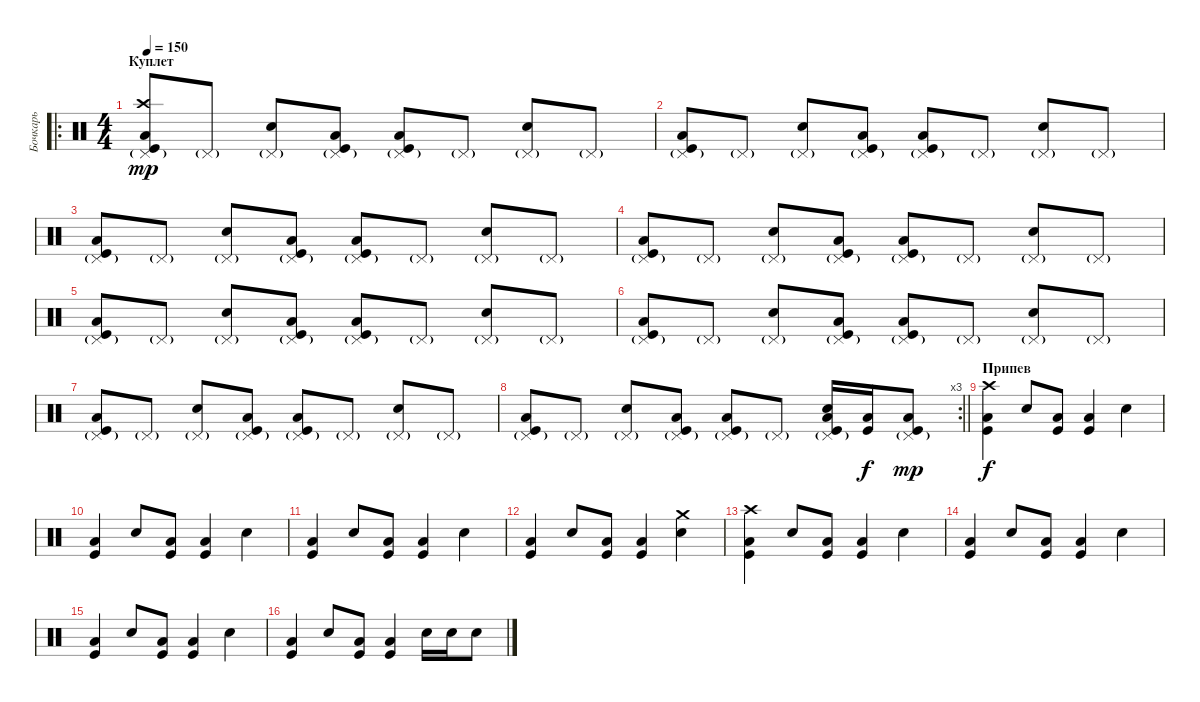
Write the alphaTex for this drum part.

\track ("Бочкарь" "Бочкарь") {instrument percussion}
\staff {score}
\articulation defaults
\ro
\ts (4 4)
\section ("" "Куплет")
\tempo 150
\clef neutral
\ks c
("Pedal Hi-Hat (hit)"{g} "Crash high (hit)" "Low Tom (hit)" "Kick (hit)").8{dy mp} "Pedal Hi-Hat (hit)"{g}.8 ("Pedal Hi-Hat (hit)"{g} "Electric Snare (hit)").8 ("Pedal Hi-Hat (hit)"{g} "Low Tom (hit)" "Kick (hit)").8 ("Pedal Hi-Hat (hit)"{g} "Low Tom (hit)" "Kick (hit)").8 "Pedal Hi-Hat (hit)"{g}.8 ("Pedal Hi-Hat (hit)"{g} "Electric Snare (hit)").8 "Pedal Hi-Hat (hit)"{g}.8 |
("Pedal Hi-Hat (hit)"{g} "Low Tom (hit)" "Kick (hit)").8 "Pedal Hi-Hat (hit)"{g}.8 ("Pedal Hi-Hat (hit)"{g} "Electric Snare (hit)").8 ("Pedal Hi-Hat (hit)"{g} "Low Tom (hit)" "Kick (hit)").8 ("Pedal Hi-Hat (hit)"{g} "Low Tom (hit)" "Kick (hit)").8 "Pedal Hi-Hat (hit)"{g}.8 ("Pedal Hi-Hat (hit)"{g} "Electric Snare (hit)").8 "Pedal Hi-Hat (hit)"{g}.8 |
("Pedal Hi-Hat (hit)"{g} "Low Tom (hit)" "Kick (hit)").8 "Pedal Hi-Hat (hit)"{g}.8 ("Pedal Hi-Hat (hit)"{g} "Electric Snare (hit)").8 ("Pedal Hi-Hat (hit)"{g} "Low Tom (hit)" "Kick (hit)").8 ("Pedal Hi-Hat (hit)"{g} "Low Tom (hit)" "Kick (hit)").8 "Pedal Hi-Hat (hit)"{g}.8 ("Pedal Hi-Hat (hit)"{g} "Electric Snare (hit)").8 "Pedal Hi-Hat (hit)"{g}.8 |
("Pedal Hi-Hat (hit)"{g} "Low Tom (hit)" "Kick (hit)").8 "Pedal Hi-Hat (hit)"{g}.8 ("Pedal Hi-Hat (hit)"{g} "Electric Snare (hit)").8 ("Pedal Hi-Hat (hit)"{g} "Low Tom (hit)" "Kick (hit)").8 ("Pedal Hi-Hat (hit)"{g} "Low Tom (hit)" "Kick (hit)").8 "Pedal Hi-Hat (hit)"{g}.8 ("Pedal Hi-Hat (hit)"{g} "Electric Snare (hit)").8 "Pedal Hi-Hat (hit)"{g}.8 |
("Pedal Hi-Hat (hit)"{g} "Low Tom (hit)" "Kick (hit)").8 "Pedal Hi-Hat (hit)"{g}.8 ("Pedal Hi-Hat (hit)"{g} "Electric Snare (hit)").8 ("Pedal Hi-Hat (hit)"{g} "Low Tom (hit)" "Kick (hit)").8 ("Pedal Hi-Hat (hit)"{g} "Low Tom (hit)" "Kick (hit)").8 "Pedal Hi-Hat (hit)"{g}.8 ("Pedal Hi-Hat (hit)"{g} "Electric Snare (hit)").8 "Pedal Hi-Hat (hit)"{g}.8 |
("Pedal Hi-Hat (hit)"{g} "Low Tom (hit)" "Kick (hit)").8 "Pedal Hi-Hat (hit)"{g}.8 ("Pedal Hi-Hat (hit)"{g} "Electric Snare (hit)").8 ("Pedal Hi-Hat (hit)"{g} "Low Tom (hit)" "Kick (hit)").8 ("Pedal Hi-Hat (hit)"{g} "Low Tom (hit)" "Kick (hit)").8 "Pedal Hi-Hat (hit)"{g}.8 ("Pedal Hi-Hat (hit)"{g} "Electric Snare (hit)").8 "Pedal Hi-Hat (hit)"{g}.8 |
("Pedal Hi-Hat (hit)"{g} "Low Tom (hit)" "Kick (hit)").8 "Pedal Hi-Hat (hit)"{g}.8 ("Pedal Hi-Hat (hit)"{g} "Electric Snare (hit)").8 ("Pedal Hi-Hat (hit)"{g} "Low Tom (hit)" "Kick (hit)").8 ("Pedal Hi-Hat (hit)"{g} "Low Tom (hit)" "Kick (hit)").8 "Pedal Hi-Hat (hit)"{g}.8 ("Pedal Hi-Hat (hit)"{g} "Electric Snare (hit)").8 "Pedal Hi-Hat (hit)"{g}.8 |
\rc 3
\barLineRight lightlight
("Pedal Hi-Hat (hit)"{g} "Low Tom (hit)" "Kick (hit)").8 "Pedal Hi-Hat (hit)"{g}.8 ("Pedal Hi-Hat (hit)"{g} "Electric Snare (hit)").8 ("Pedal Hi-Hat (hit)"{g} "Low Tom (hit)" "Kick (hit)").8 ("Pedal Hi-Hat (hit)"{g} "Low Tom (hit)" "Kick (hit)").8 "Pedal Hi-Hat (hit)"{g}.8 ("Pedal Hi-Hat (hit)"{g} "Electric Snare (hit)" "Low Tom (hit)" "Kick (hit)").16 ("Low Tom (hit)" "Kick (hit)").16{dy f} ("Pedal Hi-Hat (hit)"{g} "Low Tom (hit)" "Kick (hit)").8{dy mp} |
\section ("" "Припев")
("Crash high (hit)" "Low Tom (hit)" "Kick (hit)").4{dy f} "Electric Snare (hit)".8 ("Low Tom (hit)" "Kick (hit)").8 ("Low Tom (hit)" "Kick (hit)").4 "Electric Snare (hit)".4 |
("Low Tom (hit)" "Kick (hit)").4 "Electric Snare (hit)".8 ("Low Tom (hit)" "Kick (hit)").8 ("Low Tom (hit)" "Kick (hit)").4 "Electric Snare (hit)".4 |
("Low Tom (hit)" "Kick (hit)").4 "Electric Snare (hit)".8 ("Low Tom (hit)" "Kick (hit)").8 ("Low Tom (hit)" "Kick (hit)").4 "Electric Snare (hit)".4 |
("Low Tom (hit)" "Kick (hit)").4 "Electric Snare (hit)".8 ("Low Tom (hit)" "Kick (hit)").8 ("Low Tom (hit)" "Kick (hit)").4 ("Crash medium (hit)" "Electric Snare (hit)").4 |
("Crash high (hit)" "Low Tom (hit)" "Kick (hit)").4 "Electric Snare (hit)".8 ("Low Tom (hit)" "Kick (hit)").8 ("Low Tom (hit)" "Kick (hit)").4 "Electric Snare (hit)".4 |
("Low Tom (hit)" "Kick (hit)").4 "Electric Snare (hit)".8 ("Low Tom (hit)" "Kick (hit)").8 ("Low Tom (hit)" "Kick (hit)").4 "Electric Snare (hit)".4 |
("Low Tom (hit)" "Kick (hit)").4 "Electric Snare (hit)".8 ("Low Tom (hit)" "Kick (hit)").8 ("Low Tom (hit)" "Kick (hit)").4 "Electric Snare (hit)".4 |
("Low Tom (hit)" "Kick (hit)").4 "Electric Snare (hit)".8 ("Low Tom (hit)" "Kick (hit)").8 ("Low Tom (hit)" "Kick (hit)").4 "Snare (hit) 2".16 "Snare (hit) 2".16 "Electric Snare (hit)".8
